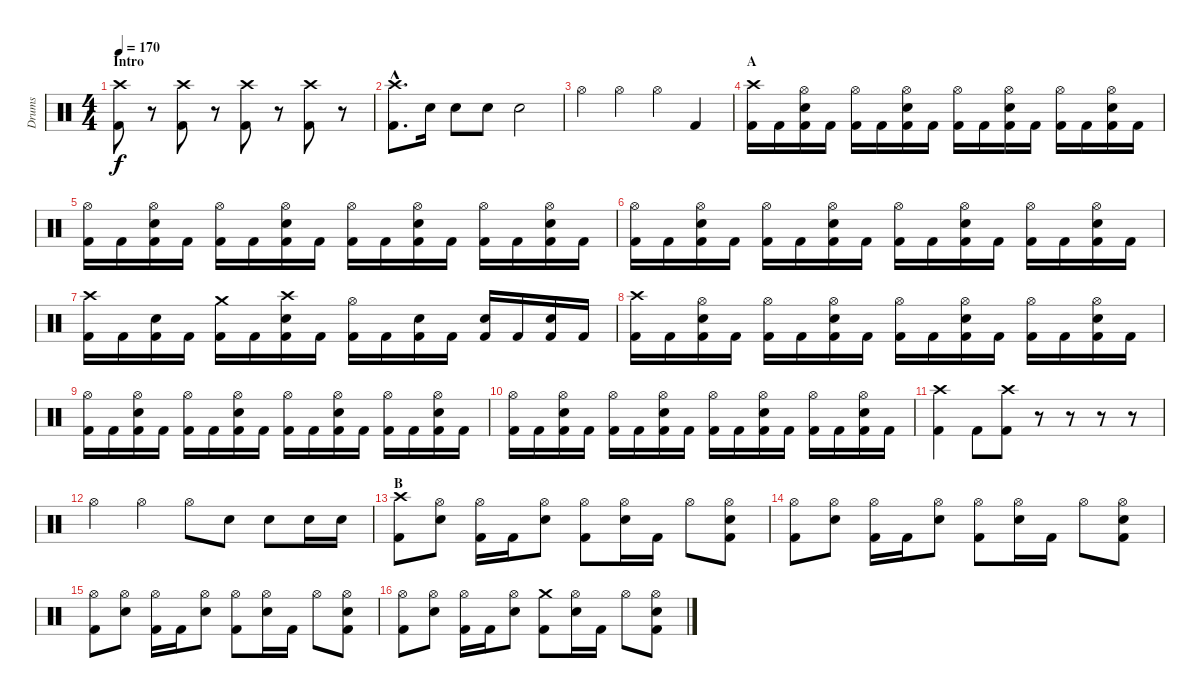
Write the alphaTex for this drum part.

\track ("Drums" "Drums") {instrument percussion}
\staff {score}
\articulation defaults
\ts (4 4)
\section ("" "Intro")
\tempo 170
\clef neutral
\ks c
("Crash high (hit)" "Kick (hit) 2").8{dy f} r.8 ("Crash high (hit)" "Kick (hit) 2").8 r.8 ("Crash high (hit)" "Kick (hit) 2").8 r.8 ("Crash high (hit)" "Kick (hit) 2").8 r.8 |
("Crash high (hit)"{hac} "Kick (hit) 2"{hac}).8{d} "Electric Snare (hit)".16 "Electric Snare (hit)".8 "Electric Snare (hit)".8 "Electric Snare (hit)".2 |
"Hi-Hat (open)".4 "Hi-Hat (open)".4 "Hi-Hat (open)".4 "Kick (hit) 2".4 |
\section ("" "A")
("Crash high (hit)" "Kick (hit) 2").16 "Kick (hit) 2".16 ("Hi-Hat (open)" "Electric Snare (hit)" "Kick (hit) 2").16 "Kick (hit) 2".16 ("Hi-Hat (open)" "Kick (hit) 2").16 "Kick (hit) 2".16 ("Hi-Hat (open)" "Electric Snare (hit)" "Kick (hit) 2").16 "Kick (hit) 2".16 ("Hi-Hat (open)" "Kick (hit) 2").16 "Kick (hit) 2".16 ("Hi-Hat (open)" "Electric Snare (hit)" "Kick (hit) 2").16 "Kick (hit) 2".16 ("Hi-Hat (open)" "Kick (hit) 2").16 "Kick (hit) 2".16 ("Hi-Hat (open)" "Electric Snare (hit)" "Kick (hit) 2").16 "Kick (hit) 2".16 |
("Hi-Hat (open)" "Kick (hit) 2").16 "Kick (hit) 2".16 ("Hi-Hat (open)" "Electric Snare (hit)" "Kick (hit) 2").16 "Kick (hit) 2".16 ("Hi-Hat (open)" "Kick (hit) 2").16 "Kick (hit) 2".16 ("Hi-Hat (open)" "Electric Snare (hit)" "Kick (hit) 2").16 "Kick (hit) 2".16 ("Hi-Hat (open)" "Kick (hit) 2").16 "Kick (hit) 2".16 ("Hi-Hat (open)" "Electric Snare (hit)" "Kick (hit) 2").16 "Kick (hit) 2".16 ("Hi-Hat (open)" "Kick (hit) 2").16 "Kick (hit) 2".16 ("Hi-Hat (open)" "Electric Snare (hit)" "Kick (hit) 2").16 "Kick (hit) 2".16 |
("Hi-Hat (open)" "Kick (hit) 2").16 "Kick (hit) 2".16 ("Hi-Hat (open)" "Electric Snare (hit)" "Kick (hit) 2").16 "Kick (hit) 2".16 ("Hi-Hat (open)" "Kick (hit) 2").16 "Kick (hit) 2".16 ("Hi-Hat (open)" "Electric Snare (hit)" "Kick (hit) 2").16 "Kick (hit) 2".16 ("Hi-Hat (open)" "Kick (hit) 2").16 "Kick (hit) 2".16 ("Hi-Hat (open)" "Electric Snare (hit)" "Kick (hit) 2").16 "Kick (hit) 2".16 ("Hi-Hat (open)" "Kick (hit) 2").16 "Kick (hit) 2".16 ("Hi-Hat (open)" "Electric Snare (hit)" "Kick (hit) 2").16 "Kick (hit) 2".16 |
("Crash high (hit)" "Kick (hit) 2").16 "Kick (hit) 2".16 ("Electric Snare (hit)" "Kick (hit) 2").16 "Kick (hit) 2".16 ("Crash medium (hit)" "Kick (hit) 2").16 "Kick (hit) 2".16 ("Crash high (hit)" "Electric Snare (hit)" "Kick (hit) 2").16 "Kick (hit) 2".16 ("Hi-Hat (open)" "Kick (hit) 2").16 "Kick (hit) 2".16 ("Electric Snare (hit)" "Kick (hit) 2").16 "Kick (hit) 2".16 ("Electric Snare (hit)" "Kick (hit) 2").16 "Kick (hit) 2".16 ("Electric Snare (hit)" "Kick (hit) 2").16 "Kick (hit) 2".16 |
("Crash high (hit)" "Kick (hit) 2").16 "Kick (hit) 2".16 ("Hi-Hat (open)" "Electric Snare (hit)" "Kick (hit) 2").16 "Kick (hit) 2".16 ("Hi-Hat (open)" "Kick (hit) 2").16 "Kick (hit) 2".16 ("Hi-Hat (open)" "Electric Snare (hit)" "Kick (hit) 2").16 "Kick (hit) 2".16 ("Hi-Hat (open)" "Kick (hit) 2").16 "Kick (hit) 2".16 ("Hi-Hat (open)" "Electric Snare (hit)" "Kick (hit) 2").16 "Kick (hit) 2".16 ("Hi-Hat (open)" "Kick (hit) 2").16 "Kick (hit) 2".16 ("Hi-Hat (open)" "Electric Snare (hit)" "Kick (hit) 2").16 "Kick (hit) 2".16 |
("Hi-Hat (open)" "Kick (hit) 2").16 "Kick (hit) 2".16 ("Hi-Hat (open)" "Electric Snare (hit)" "Kick (hit) 2").16 "Kick (hit) 2".16 ("Hi-Hat (open)" "Kick (hit) 2").16 "Kick (hit) 2".16 ("Hi-Hat (open)" "Electric Snare (hit)" "Kick (hit) 2").16 "Kick (hit) 2".16 ("Hi-Hat (open)" "Kick (hit) 2").16 "Kick (hit) 2".16 ("Hi-Hat (open)" "Electric Snare (hit)" "Kick (hit) 2").16 "Kick (hit) 2".16 ("Hi-Hat (open)" "Kick (hit) 2").16 "Kick (hit) 2".16 ("Hi-Hat (open)" "Electric Snare (hit)" "Kick (hit) 2").16 "Kick (hit) 2".16 |
("Hi-Hat (open)" "Kick (hit) 2").16 "Kick (hit) 2".16 ("Hi-Hat (open)" "Electric Snare (hit)" "Kick (hit) 2").16 "Kick (hit) 2".16 ("Hi-Hat (open)" "Kick (hit) 2").16 "Kick (hit) 2".16 ("Hi-Hat (open)" "Electric Snare (hit)" "Kick (hit) 2").16 "Kick (hit) 2".16 ("Hi-Hat (open)" "Kick (hit) 2").16 "Kick (hit) 2".16 ("Hi-Hat (open)" "Electric Snare (hit)" "Kick (hit) 2").16 "Kick (hit) 2".16 ("Hi-Hat (open)" "Kick (hit) 2").16 "Kick (hit) 2".16 ("Hi-Hat (open)" "Electric Snare (hit)" "Kick (hit) 2").16 "Kick (hit) 2".16 |
("Crash high (hit)" "Kick (hit) 2").4 "Kick (hit) 2".8 ("Crash high (hit)" "Kick (hit) 2").8 r.8 r.8 r.8 r.8 |
"Hi-Hat (open)".4 "Hi-Hat (open)".4 "Hi-Hat (open)".8 "Electric Snare (hit)".8 "Electric Snare (hit)".8 "Electric Snare (hit)".16 "Electric Snare (hit)".16 |
\section ("" "B")
("Crash high (hit)" "Kick (hit) 2").8 ("Hi-Hat (open)" "Electric Snare (hit)").8 ("Hi-Hat (open)" "Kick (hit) 2").16 "Kick (hit) 2".16 ("Hi-Hat (open)" "Electric Snare (hit)").8 ("Hi-Hat (open)" "Kick (hit) 2").8 ("Hi-Hat (open)" "Electric Snare (hit)").16 "Kick (hit) 2".16 "Hi-Hat (open)".8 ("Hi-Hat (open)" "Electric Snare (hit)" "Kick (hit) 2").8 |
("Hi-Hat (open)" "Kick (hit) 2").8 ("Hi-Hat (open)" "Electric Snare (hit)").8 ("Hi-Hat (open)" "Kick (hit) 2").16 "Kick (hit) 2".16 ("Hi-Hat (open)" "Electric Snare (hit)").8 ("Hi-Hat (open)" "Kick (hit) 2").8 ("Hi-Hat (open)" "Electric Snare (hit)").16 "Kick (hit) 2".16 "Hi-Hat (open)".8 ("Hi-Hat (open)" "Electric Snare (hit)" "Kick (hit) 2").8 |
("Hi-Hat (open)" "Kick (hit) 2").8 ("Hi-Hat (open)" "Electric Snare (hit)").8 ("Hi-Hat (open)" "Kick (hit) 2").16 "Kick (hit) 2".16 ("Hi-Hat (open)" "Electric Snare (hit)").8 ("Hi-Hat (open)" "Kick (hit) 2").8 ("Hi-Hat (open)" "Electric Snare (hit)").16 "Kick (hit) 2".16 "Hi-Hat (open)".8 ("Hi-Hat (open)" "Electric Snare (hit)" "Kick (hit) 2").8 |
("Hi-Hat (open)" "Kick (hit) 2").8 ("Hi-Hat (open)" "Electric Snare (hit)").8 ("Hi-Hat (open)" "Kick (hit) 2").16 "Kick (hit) 2".16 ("Hi-Hat (open)" "Electric Snare (hit)").8 ("Crash medium (hit)" "Kick (hit) 2").8 ("Hi-Hat (open)" "Electric Snare (hit)").16 "Kick (hit) 2".16 "Hi-Hat (open)".8 ("Hi-Hat (open)" "Electric Snare (hit)" "Kick (hit) 2").8
